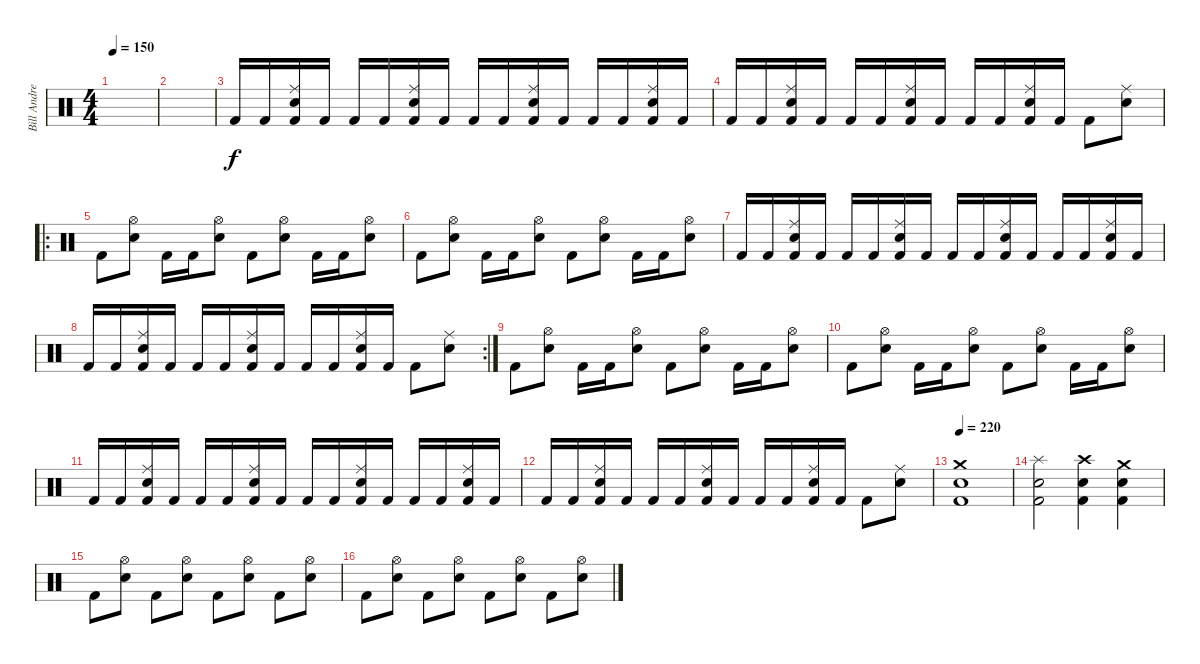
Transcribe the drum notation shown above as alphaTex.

\track ("Bill Andrews" "Bill Andre") {instrument percussion}
\staff {score}
\articulation defaults
\ts (4 4)
\tempo 150
\clef neutral
\ks c
|
|
"Kick (hit) 2".16 "Kick (hit) 2".16 ("Ride (middle)" "Snare (hit) 2" "Kick (hit) 2").16 "Kick (hit) 2".16 "Kick (hit) 2".16 "Kick (hit) 2".16 ("Ride (middle)" "Snare (hit) 2" "Kick (hit) 2").16 "Kick (hit) 2".16 "Kick (hit) 2".16 "Kick (hit) 2".16 ("Ride (middle)" "Snare (hit) 2" "Kick (hit) 2").16 "Kick (hit) 2".16 "Kick (hit) 2".16 "Kick (hit) 2".16 ("Ride (middle)" "Snare (hit) 2" "Kick (hit) 2").16 "Kick (hit) 2".16 |
"Kick (hit) 2".16 "Kick (hit) 2".16 ("Ride (middle)" "Snare (hit) 2" "Kick (hit) 2").16 "Kick (hit) 2".16 "Kick (hit) 2".16 "Kick (hit) 2".16 ("Ride (middle)" "Snare (hit) 2" "Kick (hit) 2").16 "Kick (hit) 2".16 "Kick (hit) 2".16 "Kick (hit) 2".16 ("Ride (middle)" "Snare (hit) 2" "Kick (hit) 2").16 "Kick (hit) 2".16 "Kick (hit) 2".8 ("Ride (middle)" "Snare (hit) 2").8 |
\ro "Kick (hit) 2".8
("Hi-Hat (open)" "Snare (hit) 2").8 "Kick (hit) 2".16 "Kick (hit) 2".16 ("Hi-Hat (open)" "Snare (hit) 2").8 "Kick (hit) 2".8 ("Hi-Hat (open)" "Snare (hit) 2").8 "Kick (hit) 2".16 "Kick (hit) 2".16 ("Hi-Hat (open)" "Snare (hit) 2").8 |
"Kick (hit) 2".8 ("Hi-Hat (open)" "Snare (hit) 2").8 "Kick (hit) 2".16 "Kick (hit) 2".16 ("Hi-Hat (open)" "Snare (hit) 2").8 "Kick (hit) 2".8 ("Hi-Hat (open)" "Snare (hit) 2").8 "Kick (hit) 2".16 "Kick (hit) 2".16 ("Hi-Hat (open)" "Snare (hit) 2").8 |
"Kick (hit) 2".16 "Kick (hit) 2".16 ("Ride (middle)" "Snare (hit) 2" "Kick (hit) 2").16 "Kick (hit) 2".16 "Kick (hit) 2".16 "Kick (hit) 2".16 ("Ride (middle)" "Snare (hit) 2" "Kick (hit) 2").16 "Kick (hit) 2".16 "Kick (hit) 2".16 "Kick (hit) 2".16 ("Ride (middle)" "Snare (hit) 2" "Kick (hit) 2").16 "Kick (hit) 2".16 "Kick (hit) 2".16 "Kick (hit) 2".16 ("Ride (middle)" "Snare (hit) 2" "Kick (hit) 2").16 "Kick (hit) 2".16 |
\rc 2 "Kick (hit) 2".16 "Kick (hit) 2".16
("Ride (middle)" "Snare (hit) 2" "Kick (hit) 2").16 "Kick (hit) 2".16 "Kick (hit) 2".16 "Kick (hit) 2".16 ("Ride (middle)" "Snare (hit) 2" "Kick (hit) 2").16 "Kick (hit) 2".16 "Kick (hit) 2".16 "Kick (hit) 2".16 ("Ride (middle)" "Snare (hit) 2" "Kick (hit) 2").16 "Kick (hit) 2".16 "Kick (hit) 2".8 ("Ride (middle)" "Snare (hit) 2").8 |
"Kick (hit) 2".8 ("Hi-Hat (open)" "Snare (hit) 2").8 "Kick (hit) 2".16 "Kick (hit) 2".16 ("Hi-Hat (open)" "Snare (hit) 2").8 "Kick (hit) 2".8 ("Hi-Hat (open)" "Snare (hit) 2").8 "Kick (hit) 2".16 "Kick (hit) 2".16 ("Hi-Hat (open)" "Snare (hit) 2").8 |
"Kick (hit) 2".8 ("Hi-Hat (open)" "Snare (hit) 2").8 "Kick (hit) 2".16 "Kick (hit) 2".16 ("Hi-Hat (open)" "Snare (hit) 2").8 "Kick (hit) 2".8 ("Hi-Hat (open)" "Snare (hit) 2").8 "Kick (hit) 2".16 "Kick (hit) 2".16 ("Hi-Hat (open)" "Snare (hit) 2").8 |
"Kick (hit) 2".16 "Kick (hit) 2".16 ("Ride (middle)" "Snare (hit) 2" "Kick (hit) 2").16 "Kick (hit) 2".16 "Kick (hit) 2".16 "Kick (hit) 2".16 ("Ride (middle)" "Snare (hit) 2" "Kick (hit) 2").16 "Kick (hit) 2".16 "Kick (hit) 2".16 "Kick (hit) 2".16 ("Ride (middle)" "Snare (hit) 2" "Kick (hit) 2").16 "Kick (hit) 2".16 "Kick (hit) 2".16 "Kick (hit) 2".16 ("Ride (middle)" "Snare (hit) 2" "Kick (hit) 2").16 "Kick (hit) 2".16 |
"Kick (hit) 2".16 "Kick (hit) 2".16 ("Ride (middle)" "Snare (hit) 2" "Kick (hit) 2").16 "Kick (hit) 2".16 "Kick (hit) 2".16 "Kick (hit) 2".16 ("Ride (middle)" "Snare (hit) 2" "Kick (hit) 2").16 "Kick (hit) 2".16 "Kick (hit) 2".16 "Kick (hit) 2".16 ("Ride (middle)" "Snare (hit) 2" "Kick (hit) 2").16 "Kick (hit) 2".16 "Kick (hit) 2".8 ("Ride (middle)" "Snare (hit) 2").8 |
\tempo 220
("Crash medium (hit)" "Snare (hit) 2" "Kick (hit) 2").1 |
("Splash (hit)" "Snare (hit) 2" "Kick (hit) 2").2 ("Crash high (hit)" "Snare (hit) 2" "Kick (hit) 2").4 ("Crash medium (hit)" "Snare (hit) 2" "Kick (hit) 2").4 |
"Kick (hit) 2".8 ("Hi-Hat (open)" "Snare (hit) 2").8 "Kick (hit) 2".8 ("Hi-Hat (open)" "Snare (hit) 2").8 "Kick (hit) 2".8 ("Hi-Hat (open)" "Snare (hit) 2").8 "Kick (hit) 2".8 ("Hi-Hat (open)" "Snare (hit) 2").8 |
"Kick (hit) 2".8 ("Hi-Hat (open)" "Snare (hit) 2").8 "Kick (hit) 2".8 ("Hi-Hat (open)" "Snare (hit) 2").8 "Kick (hit) 2".8 ("Hi-Hat (open)" "Snare (hit) 2").8 "Kick (hit) 2".8 ("Hi-Hat (open)" "Snare (hit) 2").8
